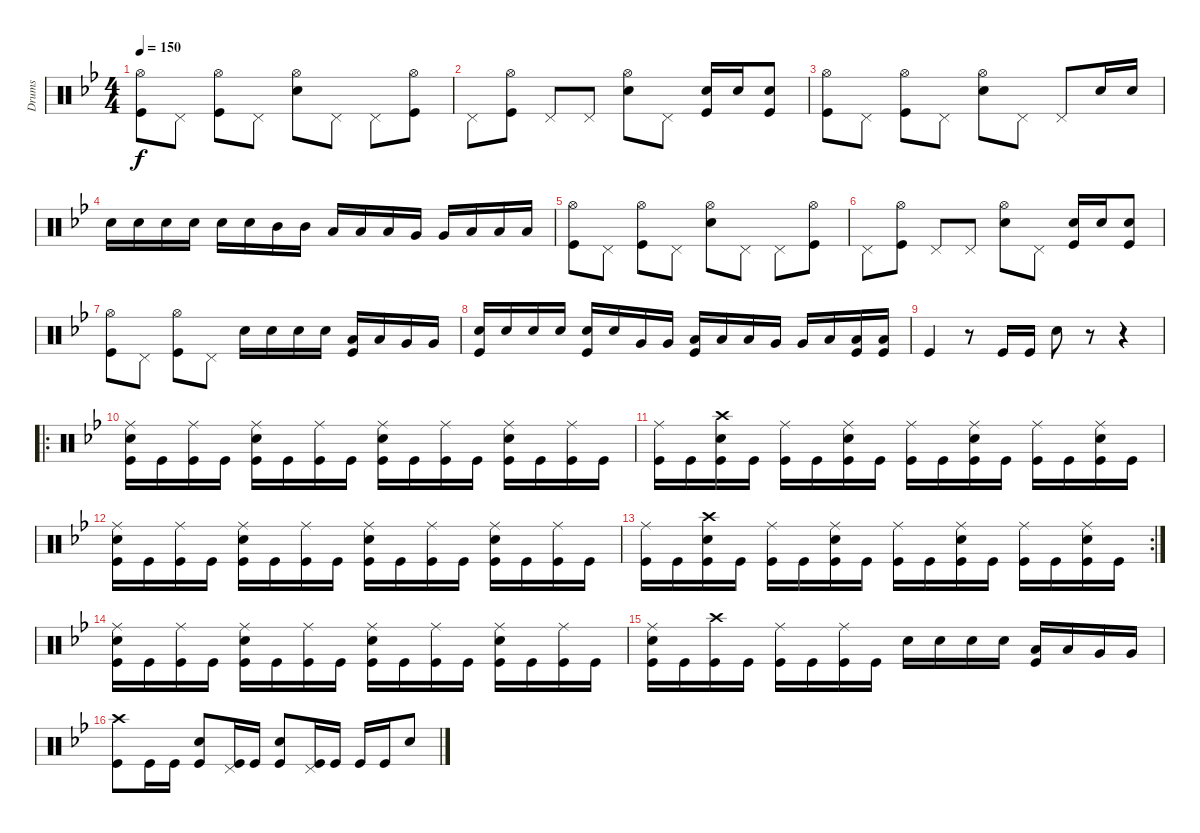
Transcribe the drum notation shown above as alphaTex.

\track ("Drums" "Drums") {instrument percussion}
\staff {score}
\articulation defaults
\ts (4 4)
\tempo 150
\clef neutral
\ks bb
("Hi-Hat (open)" "Kick (hit)").8{dy f} "Pedal Hi-Hat (hit)".8 ("Hi-Hat (open)" "Kick (hit)").8 "Pedal Hi-Hat (hit)".8 ("Hi-Hat (open)" "Electric Snare (hit)").8 "Pedal Hi-Hat (hit)".8 "Pedal Hi-Hat (hit)".8 ("Hi-Hat (open)" "Kick (hit)").8 |
"Pedal Hi-Hat (hit)".8 ("Hi-Hat (open)" "Kick (hit)").8 "Pedal Hi-Hat (hit)".8 "Pedal Hi-Hat (hit)".8 ("Hi-Hat (open)" "Electric Snare (hit)").8 "Pedal Hi-Hat (hit)".8 ("Electric Snare (hit)" "Kick (hit)").16 "Electric Snare (hit)".16 ("Electric Snare (hit)" "Kick (hit)").8 |
("Hi-Hat (open)" "Kick (hit)").8 "Pedal Hi-Hat (hit)".8 ("Hi-Hat (open)" "Kick (hit)").8 "Pedal Hi-Hat (hit)".8 ("Hi-Hat (open)" "Electric Snare (hit)").8 "Pedal Hi-Hat (hit)".8 "Pedal Hi-Hat (hit)".8 "Electric Snare (hit)".16 "Electric Snare (hit)".16 |
"Electric Snare (hit)".16 "Electric Snare (hit)".16 "Electric Snare (hit)".16 "Electric Snare (hit)".16 "Electric Snare (hit)".16 "Electric Snare (hit)".16 "Mid Tom (hit)".16 "Mid Tom (hit)".16 "Low Tom (hit)".16 "Low Tom (hit)".16 "Low Tom (hit)".16 "Very Low Tom (hit)".16 "Very Low Tom (hit)".16 "Low Floor Tom (hit)".16 "Low Floor Tom (hit)".16 "Low Floor Tom (hit)".16 |
("Hi-Hat (open)" "Kick (hit)").8 "Pedal Hi-Hat (hit)".8 ("Hi-Hat (open)" "Kick (hit)").8 "Pedal Hi-Hat (hit)".8 ("Hi-Hat (open)" "Electric Snare (hit)").8 "Pedal Hi-Hat (hit)".8 "Pedal Hi-Hat (hit)".8 ("Hi-Hat (open)" "Kick (hit)").8 |
"Pedal Hi-Hat (hit)".8 ("Hi-Hat (open)" "Kick (hit)").8 "Pedal Hi-Hat (hit)".8 "Pedal Hi-Hat (hit)".8 ("Hi-Hat (open)" "Electric Snare (hit)").8 "Pedal Hi-Hat (hit)".8 ("Electric Snare (hit)" "Kick (hit)").16 "Electric Snare (hit)".16 ("Electric Snare (hit)" "Kick (hit)").8 |
("Hi-Hat (open)" "Kick (hit)").8 "Pedal Hi-Hat (hit)".8 ("Hi-Hat (open)" "Kick (hit)").8 "Pedal Hi-Hat (hit)".8 "Electric Snare (hit)".16 "Electric Snare (hit)".16 "Electric Snare (hit)".16 "Electric Snare (hit)".16 ("Low Tom (hit)" "Kick (hit)").16 "Low Tom (hit)".16 "Very Low Tom (hit)".16 "Very Low Tom (hit)".16 |
("Electric Snare (hit)" "Kick (hit)").16 "Electric Snare (hit)".16 "Electric Snare (hit)".16 "Electric Snare (hit)".16 ("Electric Snare (hit)" "Kick (hit)").16 "Electric Snare (hit)".16 "Very Low Tom (hit)".16 "Very Low Tom (hit)".16 ("Low Tom (hit)" "Kick (hit)").16 "Low Tom (hit)".16 "Low Tom (hit)".16 "Very Low Tom (hit)".16 "Very Low Tom (hit)".16 "Low Floor Tom (hit)".16 ("Low Floor Tom (hit)" "Kick (hit)").16 ("Low Floor Tom (hit)" "Kick (hit)").16 |
"Kick (hit)".4 r.8 "Kick (hit)".16 "Kick (hit)".16 "Electric Snare (hit)".8 r.8 r.4 |
\ro
("Ride (middle)" "Electric Snare (hit)" "Kick (hit)").16 "Kick (hit)".16 ("Ride (middle)" "Kick (hit)").16 "Kick (hit)".16 ("Ride (middle)" "Electric Snare (hit)" "Kick (hit)").16 "Kick (hit)".16 ("Ride (middle)" "Kick (hit)").16 "Kick (hit)".16 ("Ride (middle)" "Electric Snare (hit)" "Kick (hit)").16 "Kick (hit)".16 ("Ride (middle)" "Kick (hit)").16 "Kick (hit)".16 ("Ride (middle)" "Electric Snare (hit)" "Kick (hit)").16 "Kick (hit)".16 ("Ride (middle)" "Kick (hit)").16 "Kick (hit)".16 |
("Ride (middle)" "Kick (hit)").16 "Kick (hit)".16 ("Crash high (hit)" "Electric Snare (hit)" "Kick (hit)").16 "Kick (hit)".16 ("Ride (middle)" "Kick (hit)").16 "Kick (hit)".16 ("Ride (middle)" "Electric Snare (hit)" "Kick (hit)").16 "Kick (hit)".16 ("Ride (middle)" "Kick (hit)").16 "Kick (hit)".16 ("Ride (middle)" "Electric Snare (hit)" "Kick (hit)").16 "Kick (hit)".16 ("Ride (middle)" "Kick (hit)").16 "Kick (hit)".16 ("Ride (middle)" "Electric Snare (hit)" "Kick (hit)").16 "Kick (hit)".16 |
("Ride (middle)" "Electric Snare (hit)" "Kick (hit)").16 "Kick (hit)".16 ("Ride (middle)" "Kick (hit)").16 "Kick (hit)".16 ("Ride (middle)" "Electric Snare (hit)" "Kick (hit)").16 "Kick (hit)".16 ("Ride (middle)" "Kick (hit)").16 "Kick (hit)".16 ("Ride (middle)" "Electric Snare (hit)" "Kick (hit)").16 "Kick (hit)".16 ("Ride (middle)" "Kick (hit)").16 "Kick (hit)".16 ("Ride (middle)" "Electric Snare (hit)" "Kick (hit)").16 "Kick (hit)".16 ("Ride (middle)" "Kick (hit)").16 "Kick (hit)".16 |
\rc 2
("Ride (middle)" "Kick (hit)").16 "Kick (hit)".16 ("Crash high (hit)" "Electric Snare (hit)" "Kick (hit)").16 "Kick (hit)".16 ("Ride (middle)" "Kick (hit)").16 "Kick (hit)".16 ("Ride (middle)" "Electric Snare (hit)" "Kick (hit)").16 "Kick (hit)".16 ("Ride (middle)" "Kick (hit)").16 "Kick (hit)".16 ("Ride (middle)" "Electric Snare (hit)" "Kick (hit)").16 "Kick (hit)".16 ("Ride (middle)" "Kick (hit)").16 "Kick (hit)".16 ("Ride (middle)" "Electric Snare (hit)" "Kick (hit)").16 "Kick (hit)".16 |
("Ride (middle)" "Electric Snare (hit)" "Kick (hit)").16 "Kick (hit)".16 ("Ride (middle)" "Kick (hit)").16 "Kick (hit)".16 ("Ride (middle)" "Electric Snare (hit)" "Kick (hit)").16 "Kick (hit)".16 ("Ride (middle)" "Kick (hit)").16 "Kick (hit)".16 ("Ride (middle)" "Electric Snare (hit)" "Kick (hit)").16 "Kick (hit)".16 ("Ride (middle)" "Kick (hit)").16 "Kick (hit)".16 ("Ride (middle)" "Electric Snare (hit)" "Kick (hit)").16 "Kick (hit)".16 ("Ride (middle)" "Kick (hit)").16 "Kick (hit)".16 |
("Ride (middle)" "Electric Snare (hit)" "Kick (hit)").16 "Kick (hit)".16 ("Crash high (hit)" "Kick (hit)").16 "Kick (hit)".16 ("Ride (middle)" "Kick (hit)").16 "Kick (hit)".16 ("Ride (middle)" "Kick (hit)").16 "Kick (hit)".16 "Electric Snare (hit)".16 "Electric Snare (hit)".16 "Electric Snare (hit)".16 "Electric Snare (hit)".16 ("Low Tom (hit)" "Kick (hit)").16 "Low Tom (hit)".16 "Very Low Tom (hit)".16 "Very Low Tom (hit)".16 |
("Crash high (hit)" "Kick (hit)").8 "Kick (hit)".16 "Kick (hit)".16 ("Electric Snare (hit)" "Kick (hit)").8 ("Pedal Hi-Hat (hit)" "Kick (hit)").16 "Kick (hit)".16 ("Electric Snare (hit)" "Kick (hit)").8 ("Pedal Hi-Hat (hit)" "Kick (hit)").16 "Kick (hit)".16 "Kick (hit)".16 "Kick (hit)".16 "Electric Snare (hit)".8
